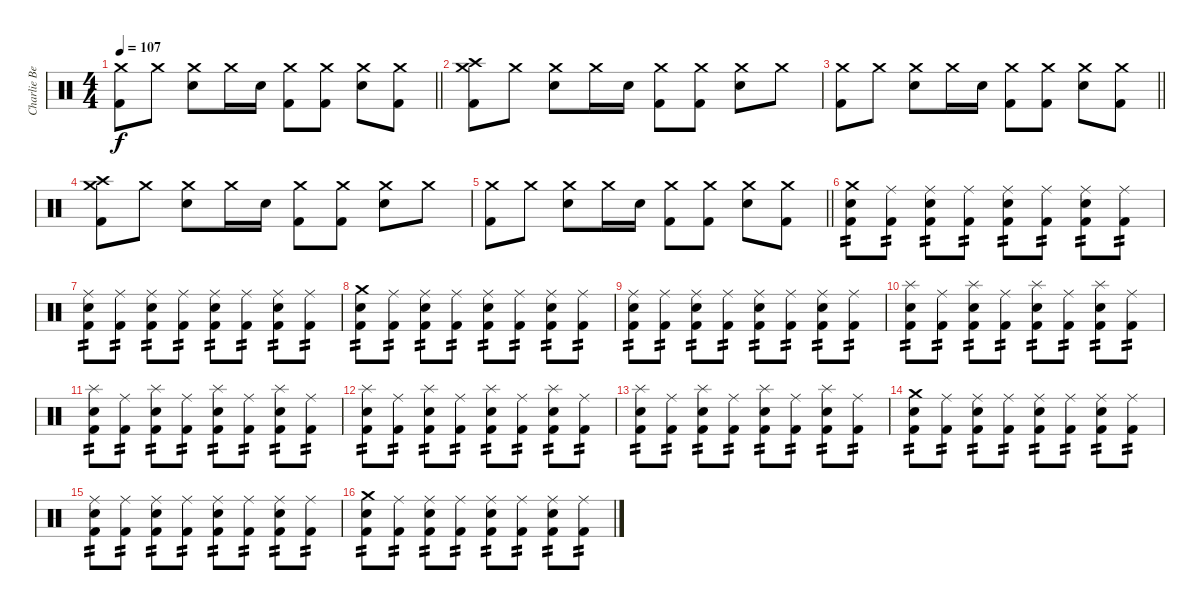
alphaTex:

\track ("Charlie Benante" "Charlie Be") {instrument percussion}
\staff {score}
\articulation defaults
\ts (4 4)
\tempo 107
\clef neutral
\barLineRight lightlight
\ks c
("Crash medium (hit)" "Kick (hit) 2").8{dy f} "Crash medium (hit)".8 ("Crash medium (hit)" "Electric Snare (hit)").8 "Crash medium (hit)".16 "Electric Snare (hit)".16 ("Crash medium (hit)" "Kick (hit) 2").8 ("Crash medium (hit)" "Kick (hit) 2").8 ("Crash medium (hit)" "Electric Snare (hit)").8 ("Crash medium (hit)" "Kick (hit) 2").8 |
("Crash high (hit)" "Crash medium (hit)" "Kick (hit) 2").8 "Crash medium (hit)".8 ("Crash medium (hit)" "Electric Snare (hit)").8 "Crash medium (hit)".16 "Electric Snare (hit)".16 ("Crash medium (hit)" "Kick (hit) 2").8 ("Crash medium (hit)" "Kick (hit) 2").8 ("Crash medium (hit)" "Electric Snare (hit)").8 "Crash medium (hit)".8 |
\barLineRight lightlight
("Crash medium (hit)" "Kick (hit) 2").8 "Crash medium (hit)".8 ("Crash medium (hit)" "Electric Snare (hit)").8 "Crash medium (hit)".16 "Electric Snare (hit)".16 ("Crash medium (hit)" "Kick (hit) 2").8 ("Crash medium (hit)" "Kick (hit) 2").8 ("Crash medium (hit)" "Electric Snare (hit)").8 ("Crash medium (hit)" "Kick (hit) 2").8 |
("Crash high (hit)" "Crash medium (hit)" "Kick (hit) 2").8 "Crash medium (hit)".8 ("Crash medium (hit)" "Electric Snare (hit)").8 "Crash medium (hit)".16 "Electric Snare (hit)".16 ("Crash medium (hit)" "Kick (hit) 2").8 ("Crash medium (hit)" "Kick (hit) 2").8 ("Crash medium (hit)" "Electric Snare (hit)").8 "Crash medium (hit)".8 |
\barLineRight lightlight
("Crash medium (hit)" "Kick (hit) 2").8 "Crash medium (hit)".8 ("Crash medium (hit)" "Electric Snare (hit)").8 "Crash medium (hit)".16 "Electric Snare (hit)".16 ("Crash medium (hit)" "Kick (hit) 2").8 ("Crash medium (hit)" "Kick (hit) 2").8 ("Crash medium (hit)" "Electric Snare (hit)").8 ("Crash medium (hit)" "Kick (hit) 2").8 |
("Crash medium (hit)" "Electric Snare (hit)" "Kick (hit) 2").8{tp 2} ("Ride (middle)" "Kick (hit) 2").8{tp 2} ("Ride (middle)" "Electric Snare (hit)" "Kick (hit) 2").8{tp 2} ("Ride (middle)" "Kick (hit) 2").8{tp 2} ("Ride (middle)" "Electric Snare (hit)" "Kick (hit) 2").8{tp 2} ("Ride (middle)" "Kick (hit) 2").8{tp 2} ("Ride (middle)" "Electric Snare (hit)" "Kick (hit) 2").8{tp 2} ("Ride (middle)" "Kick (hit) 2").8{tp 2} |
("Ride (middle)" "Electric Snare (hit)" "Kick (hit) 2").8{tp 2} ("Ride (middle)" "Kick (hit) 2").8{tp 2} ("Ride (middle)" "Electric Snare (hit)" "Kick (hit) 2").8{tp 2} ("Ride (middle)" "Kick (hit) 2").8{tp 2} ("Ride (middle)" "Electric Snare (hit)" "Kick (hit) 2").8{tp 2} ("Ride (middle)" "Kick (hit) 2").8{tp 2} ("Ride (middle)" "Electric Snare (hit)" "Kick (hit) 2").8{tp 2} ("Ride (middle)" "Kick (hit) 2").8{tp 2} |
("Crash medium (hit)" "Electric Snare (hit)" "Kick (hit) 2").8{tp 2} ("Ride (middle)" "Kick (hit) 2").8{tp 2} ("Ride (middle)" "Electric Snare (hit)" "Kick (hit) 2").8{tp 2} ("Ride (middle)" "Kick (hit) 2").8{tp 2} ("Ride (middle)" "Electric Snare (hit)" "Kick (hit) 2").8{tp 2} ("Ride (middle)" "Kick (hit) 2").8{tp 2} ("Ride (middle)" "Electric Snare (hit)" "Kick (hit) 2").8{tp 2} ("Ride (middle)" "Kick (hit) 2").8{tp 2} |
("Ride (middle)" "Electric Snare (hit)" "Kick (hit) 2").8{tp 2} ("Ride (middle)" "Kick (hit) 2").8{tp 2} ("Ride (middle)" "Electric Snare (hit)" "Kick (hit) 2").8{tp 2} ("Ride (middle)" "Kick (hit) 2").8{tp 2} ("Ride (middle)" "Electric Snare (hit)" "Kick (hit) 2").8{tp 2} ("Ride (middle)" "Kick (hit) 2").8{tp 2} ("Ride (middle)" "Electric Snare (hit)" "Kick (hit) 2").8{tp 2} ("Ride (middle)" "Kick (hit) 2").8{tp 2} |
("Splash (hit)" "Electric Snare (hit)" "Kick (hit) 2").8{tp 2} ("Ride (middle)" "Kick (hit) 2").8{tp 2} ("Splash (hit)" "Electric Snare (hit)" "Kick (hit) 2").8{tp 2} ("Ride (middle)" "Kick (hit) 2").8{tp 2} ("Splash (hit)" "Electric Snare (hit)" "Kick (hit) 2").8{tp 2} ("Ride (middle)" "Kick (hit) 2").8{tp 2} ("Splash (hit)" "Electric Snare (hit)" "Kick (hit) 2").8{tp 2} ("Ride (middle)" "Kick (hit) 2").8{tp 2} |
("Splash (hit)" "Electric Snare (hit)" "Kick (hit) 2").8{tp 2} ("Ride (middle)" "Kick (hit) 2").8{tp 2} ("Splash (hit)" "Electric Snare (hit)" "Kick (hit) 2").8{tp 2} ("Ride (middle)" "Kick (hit) 2").8{tp 2} ("Splash (hit)" "Electric Snare (hit)" "Kick (hit) 2").8{tp 2} ("Ride (middle)" "Kick (hit) 2").8{tp 2} ("Splash (hit)" "Electric Snare (hit)" "Kick (hit) 2").8{tp 2} ("Ride (middle)" "Kick (hit) 2").8{tp 2} |
("Splash (hit)" "Electric Snare (hit)" "Kick (hit) 2").8{tp 2} ("Ride (middle)" "Kick (hit) 2").8{tp 2} ("Splash (hit)" "Electric Snare (hit)" "Kick (hit) 2").8{tp 2} ("Ride (middle)" "Kick (hit) 2").8{tp 2} ("Splash (hit)" "Electric Snare (hit)" "Kick (hit) 2").8{tp 2} ("Ride (middle)" "Kick (hit) 2").8{tp 2} ("Splash (hit)" "Electric Snare (hit)" "Kick (hit) 2").8{tp 2} ("Ride (middle)" "Kick (hit) 2").8{tp 2} |
("Splash (hit)" "Electric Snare (hit)" "Kick (hit) 2").8{tp 2} ("Ride (middle)" "Kick (hit) 2").8{tp 2} ("Splash (hit)" "Electric Snare (hit)" "Kick (hit) 2").8{tp 2} ("Ride (middle)" "Kick (hit) 2").8{tp 2} ("Splash (hit)" "Electric Snare (hit)" "Kick (hit) 2").8{tp 2} ("Ride (middle)" "Kick (hit) 2").8{tp 2} ("Splash (hit)" "Electric Snare (hit)" "Kick (hit) 2").8{tp 2} ("Ride (middle)" "Kick (hit) 2").8{tp 2} |
("Crash medium (hit)" "Electric Snare (hit)" "Kick (hit) 2").8{tp 2} ("Ride (middle)" "Kick (hit) 2").8{tp 2} ("Ride (middle)" "Electric Snare (hit)" "Kick (hit) 2").8{tp 2} ("Ride (middle)" "Kick (hit) 2").8{tp 2} ("Ride (middle)" "Electric Snare (hit)" "Kick (hit) 2").8{tp 2} ("Ride (middle)" "Kick (hit) 2").8{tp 2} ("Ride (middle)" "Electric Snare (hit)" "Kick (hit) 2").8{tp 2} ("Ride (middle)" "Kick (hit) 2").8{tp 2} |
("Ride (middle)" "Electric Snare (hit)" "Kick (hit) 2").8{tp 2} ("Ride (middle)" "Kick (hit) 2").8{tp 2} ("Ride (middle)" "Electric Snare (hit)" "Kick (hit) 2").8{tp 2} ("Ride (middle)" "Kick (hit) 2").8{tp 2} ("Ride (middle)" "Electric Snare (hit)" "Kick (hit) 2").8{tp 2} ("Ride (middle)" "Kick (hit) 2").8{tp 2} ("Ride (middle)" "Electric Snare (hit)" "Kick (hit) 2").8{tp 2} ("Ride (middle)" "Kick (hit) 2").8{tp 2} |
("Crash medium (hit)" "Electric Snare (hit)" "Kick (hit) 2").8{tp 2} ("Ride (middle)" "Kick (hit) 2").8{tp 2} ("Ride (middle)" "Electric Snare (hit)" "Kick (hit) 2").8{tp 2} ("Ride (middle)" "Kick (hit) 2").8{tp 2} ("Ride (middle)" "Electric Snare (hit)" "Kick (hit) 2").8{tp 2} ("Ride (middle)" "Kick (hit) 2").8{tp 2} ("Ride (middle)" "Electric Snare (hit)" "Kick (hit) 2").8{tp 2} ("Ride (middle)" "Kick (hit) 2").8{tp 2}
